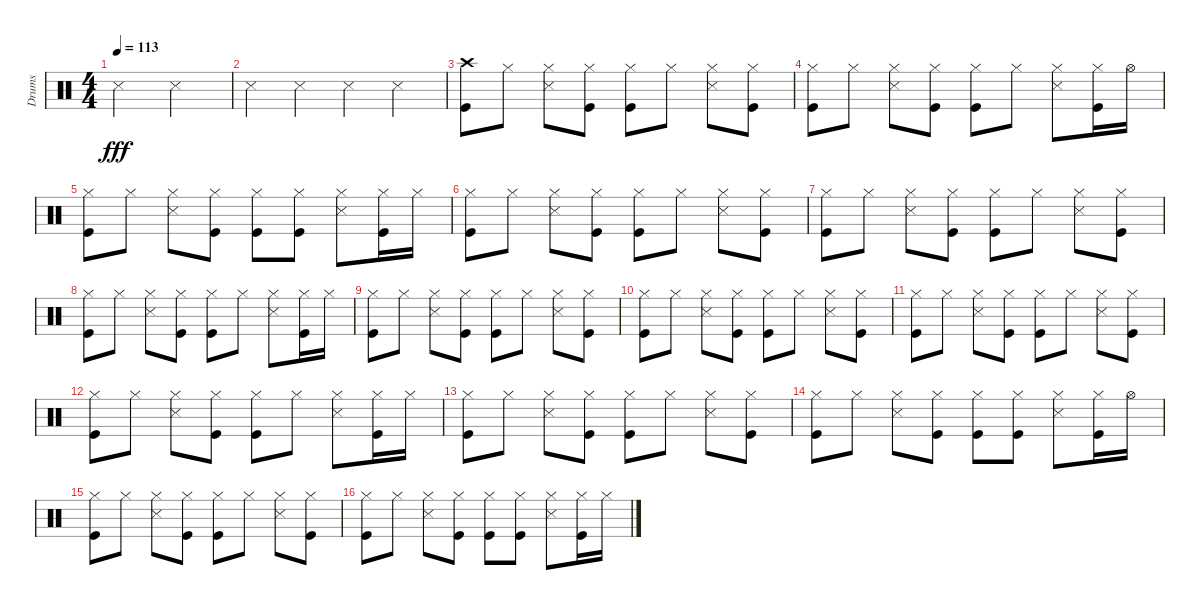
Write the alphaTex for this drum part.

\track ("Drums" "Drums") {instrument percussion}
\staff {score}
\articulation defaults
\ts (4 4)
\tempo 113
\clef neutral
\ks c "Snare (side stick) 3".2{dy fff} "Snare (side stick) 3".2
|
"Snare (side stick) 3".4 "Snare (side stick) 3".4 "Snare (side stick) 3".4 "Snare (side stick) 3".4 |
("Kick (hit)" "Crash high (hit)").8 "Hi-Hat (closed)".8 ("Snare (side stick) 3" "Hi-Hat (closed)").8 ("Kick (hit)" "Hi-Hat (closed)").8 ("Kick (hit)" "Hi-Hat (closed)").8 "Hi-Hat (closed)".8 ("Snare (side stick) 3" "Hi-Hat (closed)").8 ("Kick (hit)" "Hi-Hat (closed)").8 |
("Kick (hit)" "Hi-Hat (closed)").8 "Hi-Hat (closed)".8 ("Snare (side stick) 3" "Hi-Hat (closed)").8 ("Kick (hit)" "Hi-Hat (closed)").8 ("Kick (hit)" "Hi-Hat (closed)").8 "Hi-Hat (closed)".8 ("Snare (side stick) 3" "Hi-Hat (closed)").8 ("Kick (hit)" "Hi-Hat (closed)").16 "Hi-Hat (open)".16 |
("Kick (hit)" "Hi-Hat (closed)").8 "Hi-Hat (closed)".8 ("Snare (side stick) 3" "Hi-Hat (closed)").8 ("Kick (hit)" "Hi-Hat (closed)").8 ("Kick (hit)" "Hi-Hat (closed)").8 ("Kick (hit)" "Hi-Hat (closed)").8 ("Snare (side stick) 3" "Hi-Hat (closed)").8 ("Kick (hit)" "Hi-Hat (closed)").16 "Hi-Hat (closed)".16 |
("Kick (hit)" "Hi-Hat (closed)").8 "Hi-Hat (closed)".8 ("Snare (side stick) 3" "Hi-Hat (closed)").8 ("Kick (hit)" "Hi-Hat (closed)").8 ("Kick (hit)" "Hi-Hat (closed)").8 "Hi-Hat (closed)".8 ("Snare (side stick) 3" "Hi-Hat (closed)").8 ("Kick (hit)" "Hi-Hat (closed)").8 |
("Kick (hit)" "Hi-Hat (closed)").8 "Hi-Hat (closed)".8 ("Snare (side stick) 3" "Hi-Hat (closed)").8 ("Kick (hit)" "Hi-Hat (closed)").8 ("Kick (hit)" "Hi-Hat (closed)").8 "Hi-Hat (closed)".8 ("Snare (side stick) 3" "Hi-Hat (closed)").8 ("Kick (hit)" "Hi-Hat (closed)").8 |
("Kick (hit)" "Hi-Hat (closed)").8 "Hi-Hat (closed)".8 ("Snare (side stick) 3" "Hi-Hat (closed)").8 ("Kick (hit)" "Hi-Hat (closed)").8 ("Kick (hit)" "Hi-Hat (closed)").8 "Hi-Hat (closed)".8 ("Snare (side stick) 3" "Hi-Hat (closed)").8 ("Kick (hit)" "Hi-Hat (closed)").16 "Hi-Hat (closed)".16 |
("Kick (hit)" "Hi-Hat (closed)").8 "Hi-Hat (closed)".8 ("Snare (side stick) 3" "Hi-Hat (closed)").8 ("Kick (hit)" "Hi-Hat (closed)").8 ("Kick (hit)" "Hi-Hat (closed)").8 "Hi-Hat (closed)".8 ("Snare (side stick) 3" "Hi-Hat (closed)").8 ("Kick (hit)" "Hi-Hat (closed)").8 |
("Kick (hit)" "Hi-Hat (closed)").8 "Hi-Hat (closed)".8 ("Snare (side stick) 3" "Hi-Hat (closed)").8 ("Kick (hit)" "Hi-Hat (closed)").8 ("Kick (hit)" "Hi-Hat (closed)").8 "Hi-Hat (closed)".8 ("Snare (side stick) 3" "Hi-Hat (closed)").8 ("Kick (hit)" "Hi-Hat (closed)").8 |
("Kick (hit)" "Hi-Hat (closed)").8 "Hi-Hat (closed)".8 ("Snare (side stick) 3" "Hi-Hat (closed)").8 ("Kick (hit)" "Hi-Hat (closed)").8 ("Kick (hit)" "Hi-Hat (closed)").8 "Hi-Hat (closed)".8 ("Snare (side stick) 3" "Hi-Hat (closed)").8 ("Kick (hit)" "Hi-Hat (closed)").8 |
("Kick (hit)" "Hi-Hat (closed)").8 "Hi-Hat (closed)".8 ("Snare (side stick) 3" "Hi-Hat (closed)").8 ("Kick (hit)" "Hi-Hat (closed)").8 ("Kick (hit)" "Hi-Hat (closed)").8 "Hi-Hat (closed)".8 ("Snare (side stick) 3" "Hi-Hat (closed)").8 ("Kick (hit)" "Hi-Hat (closed)").16 "Hi-Hat (closed)".16 |
("Kick (hit)" "Hi-Hat (closed)").8 "Hi-Hat (closed)".8 ("Snare (side stick) 3" "Hi-Hat (closed)").8 ("Kick (hit)" "Hi-Hat (closed)").8 ("Kick (hit)" "Hi-Hat (closed)").8 "Hi-Hat (closed)".8 ("Snare (side stick) 3" "Hi-Hat (closed)").8 ("Kick (hit)" "Hi-Hat (closed)").8 |
("Kick (hit)" "Hi-Hat (closed)").8 "Hi-Hat (closed)".8 ("Snare (side stick) 3" "Hi-Hat (closed)").8 ("Kick (hit)" "Hi-Hat (closed)").8 ("Kick (hit)" "Hi-Hat (closed)").8 ("Kick (hit)" "Hi-Hat (closed)").8 ("Snare (side stick) 3" "Hi-Hat (closed)").8 ("Kick (hit)" "Hi-Hat (closed)").16 "Hi-Hat (open)".16 |
("Kick (hit)" "Hi-Hat (closed)").8 "Hi-Hat (closed)".8 ("Snare (side stick) 3" "Hi-Hat (closed)").8 ("Kick (hit)" "Hi-Hat (closed)").8 ("Kick (hit)" "Hi-Hat (closed)").8 "Hi-Hat (closed)".8 ("Snare (side stick) 3" "Hi-Hat (closed)").8 ("Kick (hit)" "Hi-Hat (closed)").8 |
("Kick (hit)" "Hi-Hat (closed)").8 "Hi-Hat (closed)".8 ("Snare (side stick) 3" "Hi-Hat (closed)").8 ("Kick (hit)" "Hi-Hat (closed)").8 ("Kick (hit)" "Hi-Hat (closed)").8 ("Kick (hit)" "Hi-Hat (closed)").8 ("Snare (side stick) 3" "Hi-Hat (closed)").8 ("Kick (hit)" "Hi-Hat (closed)").16 "Hi-Hat (closed)".16
